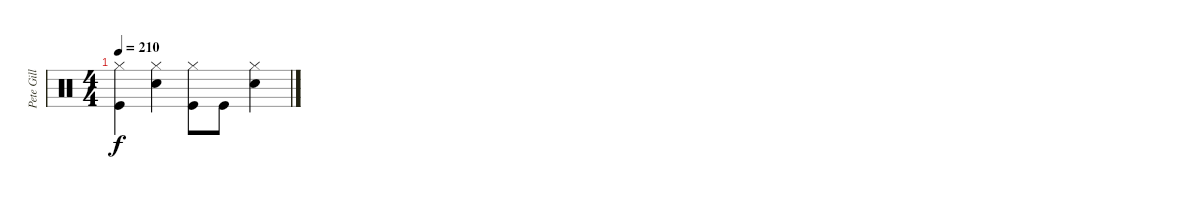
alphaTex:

\track ("Pete Gill" "Pete Gill") {instrument percussion}
\staff {score}
\articulation defaults
\ts (4 4)
\tempo 210
\clef neutral
\ks c
("Hi-Hat (closed)" "Kick (hit)").4{dy f} ("Hi-Hat (closed)" "Snare (hit) 2").4 ("Hi-Hat (closed)" "Kick (hit)").8 "Kick (hit)".8 ("Hi-Hat (closed)" "Snare (hit) 2").4
